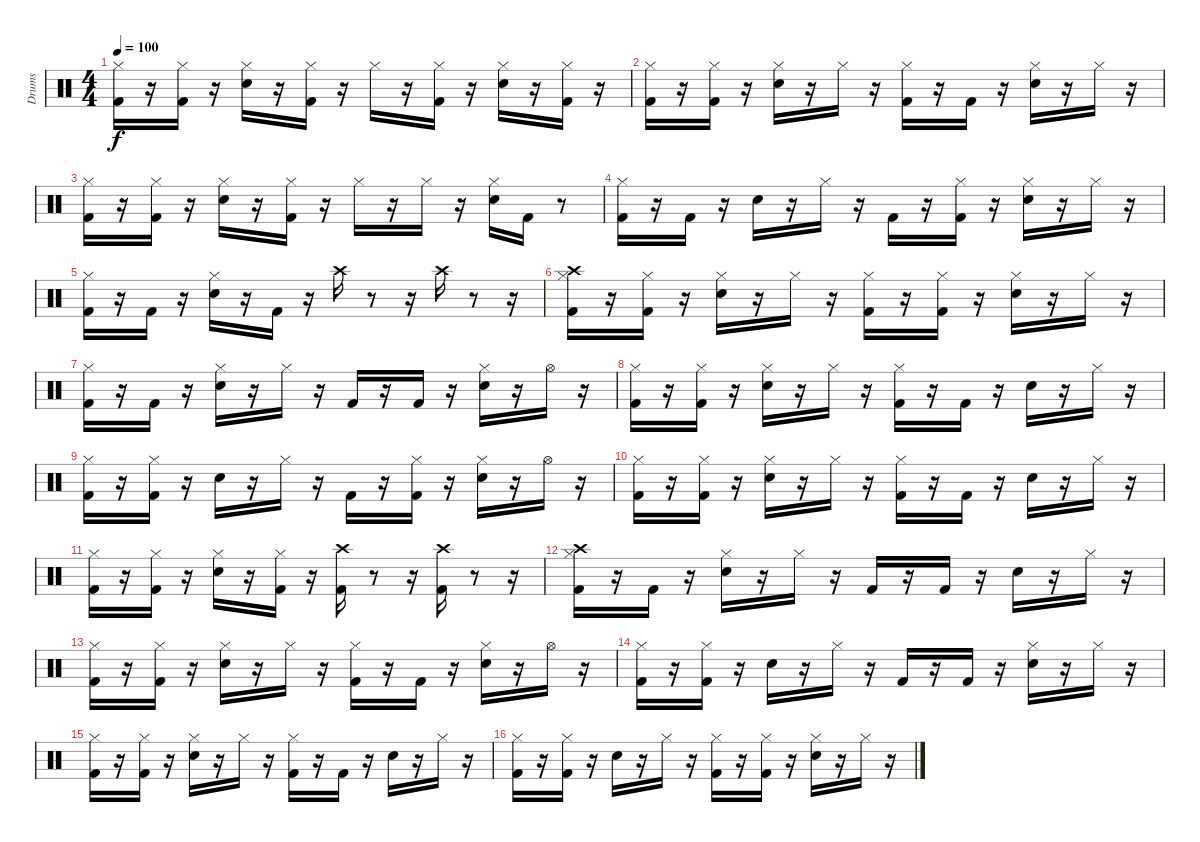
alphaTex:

\track ("Drums" "Drums") {instrument percussion}
\staff {score}
\articulation defaults
\ts (4 4)
\tempo 100
\clef neutral
\ks c
("Kick (hit) 2" "Hi-Hat (closed)").16{dy f} r.16 ("Kick (hit) 2" "Hi-Hat (closed)").16 r.16 ("Snare (hit) 2" "Hi-Hat (closed)").16 r.16 ("Kick (hit) 2" "Hi-Hat (closed)").16 r.16 "Hi-Hat (closed)".16 r.16 ("Kick (hit) 2" "Hi-Hat (closed)").16 r.16 ("Snare (hit) 2" "Hi-Hat (closed)").16 r.16 ("Kick (hit) 2" "Hi-Hat (closed)").16 r.16 |
("Kick (hit) 2" "Hi-Hat (closed)").16 r.16 ("Kick (hit) 2" "Hi-Hat (closed)").16 r.16 ("Snare (hit) 2" "Hi-Hat (closed)").16 r.16 "Hi-Hat (closed)".16 r.16 ("Kick (hit) 2" "Hi-Hat (closed)").16 r.16 "Kick (hit) 2".16 r.16 ("Snare (hit) 2" "Hi-Hat (closed)").16 r.16 "Hi-Hat (closed)".16 r.16 |
("Kick (hit) 2" "Hi-Hat (closed)").16 r.16 ("Kick (hit) 2" "Hi-Hat (closed)").16 r.16 ("Snare (hit) 2" "Hi-Hat (closed)").16 r.16 ("Kick (hit) 2" "Hi-Hat (closed)").16 r.16 "Hi-Hat (closed)".16 r.16 "Hi-Hat (closed)".16 r.16 ("Snare (hit) 2" "Hi-Hat (closed)").16 "Kick (hit) 2".16 r.8 |
("Kick (hit) 2" "Hi-Hat (closed)").16 r.16 "Kick (hit) 2".16 r.16 "Snare (hit) 2".16 r.16 "Hi-Hat (closed)".16 r.16 "Kick (hit) 2".16 r.16 ("Kick (hit) 2" "Hi-Hat (closed)").16 r.16 ("Snare (hit) 2" "Hi-Hat (closed)").16 r.16 "Hi-Hat (closed)".16 r.16 |
("Kick (hit) 2" "Hi-Hat (closed)").16 r.16 "Kick (hit) 2".16 r.16 ("Snare (hit) 2" "Hi-Hat (closed)").16 r.16 "Kick (hit) 2".16 r.16 "Crash high (hit)".16 r.8 r.16 "Crash high (hit)".16 r.8 r.16 |
("Kick (hit) 2" "Hi-Hat (closed)" "Crash high (hit)").16 r.16 ("Kick (hit) 2" "Hi-Hat (closed)").16 r.16 ("Snare (hit) 2" "Hi-Hat (closed)").16 r.16 "Hi-Hat (closed)".16 r.16 ("Kick (hit) 2" "Hi-Hat (closed)").16 r.16 ("Kick (hit) 2" "Hi-Hat (closed)").16 r.16 ("Snare (hit) 2" "Hi-Hat (closed)").16 r.16 "Hi-Hat (closed)".16 r.16 |
("Kick (hit) 2" "Hi-Hat (closed)").16 r.16 "Kick (hit) 2".16 r.16 ("Snare (hit) 2" "Hi-Hat (closed)").16 r.16 "Hi-Hat (closed)".16 r.16 "Kick (hit) 2".16 r.16 "Kick (hit) 2".16 r.16 ("Snare (hit) 2" "Hi-Hat (closed)").16 r.16 "Hi-Hat (open)".16 r.16 |
("Kick (hit) 2" "Hi-Hat (closed)").16 r.16 ("Kick (hit) 2" "Hi-Hat (closed)").16 r.16 ("Snare (hit) 2" "Hi-Hat (closed)").16 r.16 "Hi-Hat (closed)".16 r.16 ("Kick (hit) 2" "Hi-Hat (closed)").16 r.16 "Kick (hit) 2".16 r.16 "Snare (hit) 2".16 r.16 "Hi-Hat (closed)".16 r.16 |
("Kick (hit) 2" "Hi-Hat (closed)").16 r.16 ("Kick (hit) 2" "Hi-Hat (closed)").16 r.16 "Snare (hit) 2".16 r.16 "Hi-Hat (closed)".16 r.16 "Kick (hit) 2".16 r.16 ("Kick (hit) 2" "Hi-Hat (closed)").16 r.16 ("Snare (hit) 2" "Hi-Hat (closed)").16 r.16 "Hi-Hat (open)".16 r.16 |
("Kick (hit) 2" "Hi-Hat (closed)").16 r.16 ("Kick (hit) 2" "Hi-Hat (closed)").16 r.16 ("Snare (hit) 2" "Hi-Hat (closed)").16 r.16 "Hi-Hat (closed)".16 r.16 ("Kick (hit) 2" "Hi-Hat (closed)").16 r.16 "Kick (hit) 2".16 r.16 "Snare (hit) 2".16 r.16 "Hi-Hat (closed)".16 r.16 |
("Kick (hit) 2" "Hi-Hat (closed)").16 r.16 ("Kick (hit) 2" "Hi-Hat (closed)").16 r.16 ("Snare (hit) 2" "Hi-Hat (closed)").16 r.16 ("Kick (hit) 2" "Hi-Hat (closed)").16 r.16 ("Kick (hit) 2" "Crash high (hit)").16 r.8 r.16 ("Kick (hit) 2" "Crash high (hit)").16 r.8 r.16 |
("Kick (hit) 2" "Hi-Hat (closed)" "Crash high (hit)").16 r.16 "Kick (hit) 2".16 r.16 ("Snare (hit) 2" "Hi-Hat (closed)").16 r.16 "Hi-Hat (closed)".16 r.16 "Kick (hit) 2".16 r.16 "Kick (hit) 2".16 r.16 "Snare (hit) 2".16 r.16 "Hi-Hat (closed)".16 r.16 |
("Kick (hit) 2" "Hi-Hat (closed)").16 r.16 ("Kick (hit) 2" "Hi-Hat (closed)").16 r.16 ("Snare (hit) 2" "Hi-Hat (closed)").16 r.16 "Hi-Hat (closed)".16 r.16 ("Kick (hit) 2" "Hi-Hat (closed)").16 r.16 "Kick (hit) 2".16 r.16 ("Snare (hit) 2" "Hi-Hat (closed)").16 r.16 "Hi-Hat (open)".16 r.16 |
("Kick (hit) 2" "Hi-Hat (closed)").16 r.16 ("Kick (hit) 2" "Hi-Hat (closed)").16 r.16 "Snare (hit) 2".16 r.16 "Hi-Hat (closed)".16 r.16 "Kick (hit) 2".16 r.16 "Kick (hit) 2".16 r.16 ("Snare (hit) 2" "Hi-Hat (closed)").16 r.16 "Hi-Hat (closed)".16 r.16 |
("Kick (hit) 2" "Hi-Hat (closed)").16 r.16 ("Kick (hit) 2" "Hi-Hat (closed)").16 r.16 ("Snare (hit) 2" "Hi-Hat (closed)").16 r.16 "Hi-Hat (closed)".16 r.16 ("Kick (hit) 2" "Hi-Hat (closed)").16 r.16 "Kick (hit) 2".16 r.16 "Snare (hit) 2".16 r.16 "Hi-Hat (closed)".16 r.16 |
("Kick (hit) 2" "Hi-Hat (closed)").16 r.16 ("Kick (hit) 2" "Hi-Hat (closed)").16 r.16 "Snare (hit) 2".16 r.16 "Hi-Hat (closed)".16 r.16 ("Kick (hit) 2" "Hi-Hat (closed)").16 r.16 ("Kick (hit) 2" "Hi-Hat (closed)").16 r.16 ("Snare (hit) 2" "Hi-Hat (closed)").16 r.16 "Hi-Hat (closed)".16 r.16
